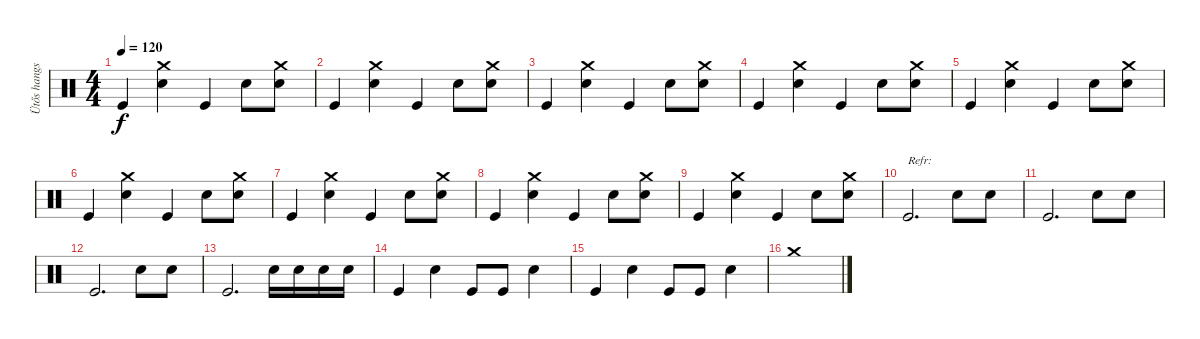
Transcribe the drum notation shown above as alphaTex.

\track ("Ütős hangszer" "Ütős hangs") {instrument percussion}
\staff {score}
\articulation defaults
\ts (4 4)
\tempo 120
\clef neutral
\ks c "Kick (hit)".4{dy f}
("Crash medium (hit)" "Snare (hit) 2").4 "Kick (hit)".4 "Snare (hit) 2".8 ("Crash medium (hit)" "Snare (hit) 2").8 |
"Kick (hit)".4 ("Crash medium (hit)" "Snare (hit) 2").4 "Kick (hit)".4 "Snare (hit) 2".8 ("Crash medium (hit)" "Snare (hit) 2").8 |
"Kick (hit)".4 ("Crash medium (hit)" "Snare (hit) 2").4 "Kick (hit)".4 "Snare (hit) 2".8 ("Crash medium (hit)" "Snare (hit) 2").8 |
"Kick (hit)".4 ("Crash medium (hit)" "Snare (hit) 2").4 "Kick (hit)".4 "Snare (hit) 2".8 ("Crash medium (hit)" "Snare (hit) 2").8 |
"Kick (hit)".4 ("Crash medium (hit)" "Snare (hit) 2").4 "Kick (hit)".4 "Snare (hit) 2".8 ("Crash medium (hit)" "Snare (hit) 2").8 |
"Kick (hit)".4 ("Crash medium (hit)" "Snare (hit) 2").4 "Kick (hit)".4 "Snare (hit) 2".8 ("Crash medium (hit)" "Snare (hit) 2").8 |
"Kick (hit)".4 ("Crash medium (hit)" "Snare (hit) 2").4 "Kick (hit)".4 "Snare (hit) 2".8 ("Crash medium (hit)" "Snare (hit) 2").8 |
"Kick (hit)".4 ("Crash medium (hit)" "Snare (hit) 2").4 "Kick (hit)".4 "Snare (hit) 2".8 ("Crash medium (hit)" "Snare (hit) 2").8 |
"Kick (hit)".4 ("Crash medium (hit)" "Snare (hit) 2").4 "Kick (hit)".4 "Snare (hit) 2".8 ("Crash medium (hit)" "Snare (hit) 2").8 |
"Kick (hit)".2{d txt "Refr:"} "Snare (hit) 2".8 "Snare (hit) 2".8 |
"Kick (hit)".2{d} "Snare (hit) 2".8 "Snare (hit) 2".8 |
"Kick (hit)".2{d} "Snare (hit) 2".8 "Snare (hit) 2".8 |
"Kick (hit)".2{d} "Snare (hit) 2".16 "Snare (hit) 2".16 "Snare (hit) 2".16 "Snare (hit) 2".16 |
"Kick (hit)".4 "Snare (hit) 2".4 "Kick (hit)".8 "Kick (hit)".8 "Snare (hit) 2".4 |
"Kick (hit)".4 "Snare (hit) 2".4 "Kick (hit)".8 "Kick (hit)".8 "Snare (hit) 2".4 |
"Crash medium (hit)".1
